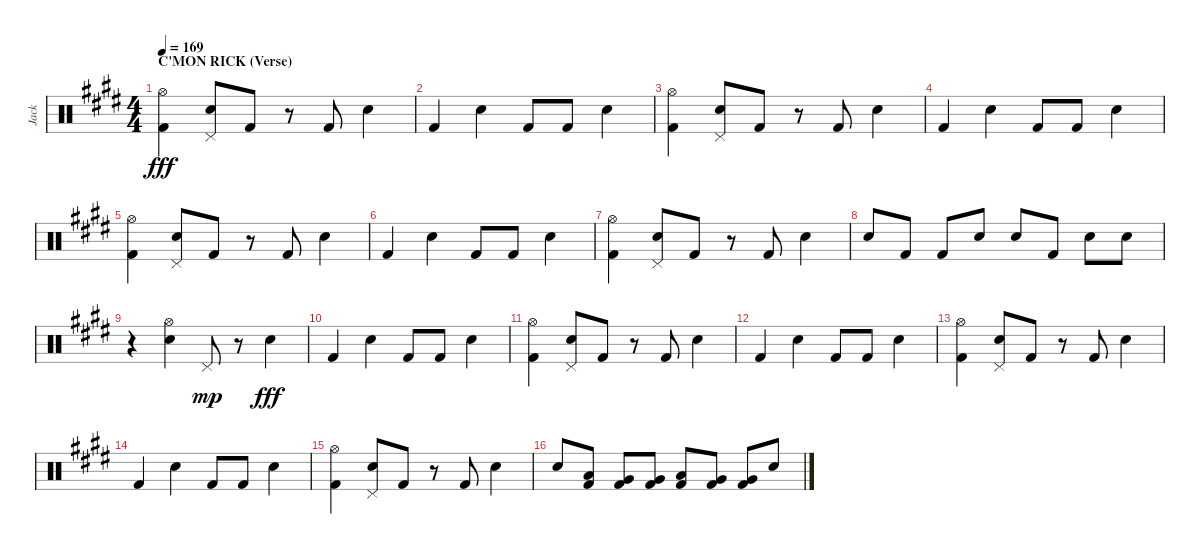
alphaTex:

\track ("Jack" "Jack") {instrument percussion}
\staff {score}
\articulation defaults
\ts (4 4)
\section ("" "C'MON RICK (Verse)")
\tempo 169
\clef neutral
\ks c#minor
("Hi-Hat (open)" "Kick (hit) 2").4{dy fff} ("Pedal Hi-Hat (hit)" "Electric Snare (hit)").8 "Kick (hit) 2".8 r.8 "Kick (hit) 2".8 "Electric Snare (hit)".4 |
"Kick (hit) 2".4 "Electric Snare (hit)".4 "Kick (hit) 2".8 "Kick (hit) 2".8 "Electric Snare (hit)".4 |
("Hi-Hat (open)" "Kick (hit) 2").4 ("Pedal Hi-Hat (hit)" "Electric Snare (hit)").8 "Kick (hit) 2".8 r.8 "Kick (hit) 2".8 "Electric Snare (hit)".4 |
"Kick (hit) 2".4 "Electric Snare (hit)".4 "Kick (hit) 2".8 "Kick (hit) 2".8 "Electric Snare (hit)".4 |
("Hi-Hat (open)" "Kick (hit) 2").4 ("Pedal Hi-Hat (hit)" "Electric Snare (hit)").8 "Kick (hit) 2".8 r.8 "Kick (hit) 2".8 "Electric Snare (hit)".4 |
"Kick (hit) 2".4 "Electric Snare (hit)".4 "Kick (hit) 2".8 "Kick (hit) 2".8 "Electric Snare (hit)".4 |
("Hi-Hat (open)" "Kick (hit) 2").4 ("Pedal Hi-Hat (hit)" "Electric Snare (hit)").8 "Kick (hit) 2".8 r.8 "Kick (hit) 2".8 "Electric Snare (hit)".4 |
"Electric Snare (hit)".8 "Kick (hit) 2".8 "Kick (hit) 2".8 "Electric Snare (hit)".8 "Electric Snare (hit)".8 "Kick (hit) 2".8 "Electric Snare (hit)".8 "Electric Snare (hit)".8 |
r.4 ("Hi-Hat (open)" "Electric Snare (hit)").4 "Pedal Hi-Hat (hit)".8{dy mp} r.8 "Electric Snare (hit)".4{dy fff} |
"Kick (hit) 2".4 "Electric Snare (hit)".4 "Kick (hit) 2".8 "Kick (hit) 2".8 "Electric Snare (hit)".4 |
("Hi-Hat (open)" "Kick (hit) 2").4 ("Pedal Hi-Hat (hit)" "Electric Snare (hit)").8 "Kick (hit) 2".8 r.8 "Kick (hit) 2".8 "Electric Snare (hit)".4 |
"Kick (hit) 2".4 "Electric Snare (hit)".4 "Kick (hit) 2".8 "Kick (hit) 2".8 "Electric Snare (hit)".4 |
("Hi-Hat (open)" "Kick (hit) 2").4 ("Pedal Hi-Hat (hit)" "Electric Snare (hit)").8 "Kick (hit) 2".8 r.8 "Kick (hit) 2".8 "Electric Snare (hit)".4 |
"Kick (hit) 2".4 "Electric Snare (hit)".4 "Kick (hit) 2".8 "Kick (hit) 2".8 "Electric Snare (hit)".4 |
("Hi-Hat (open)" "Kick (hit) 2").4 ("Pedal Hi-Hat (hit)" "Electric Snare (hit)").8 "Kick (hit) 2".8 r.8 "Kick (hit) 2".8 "Electric Snare (hit)".4 |
"Electric Snare (hit)".8 ("Low Tom (hit)" "Kick (hit) 2").8 ("Very Low Tom (hit)" "Kick (hit) 2").8 ("Very Low Tom (hit)" "Kick (hit) 2").8 ("Low Tom (hit)" "Kick (hit) 2").8 ("Very Low Tom (hit)" "Kick (hit) 2").8 ("Very Low Tom (hit)" "Kick (hit) 2").8 "Electric Snare (hit)".8
